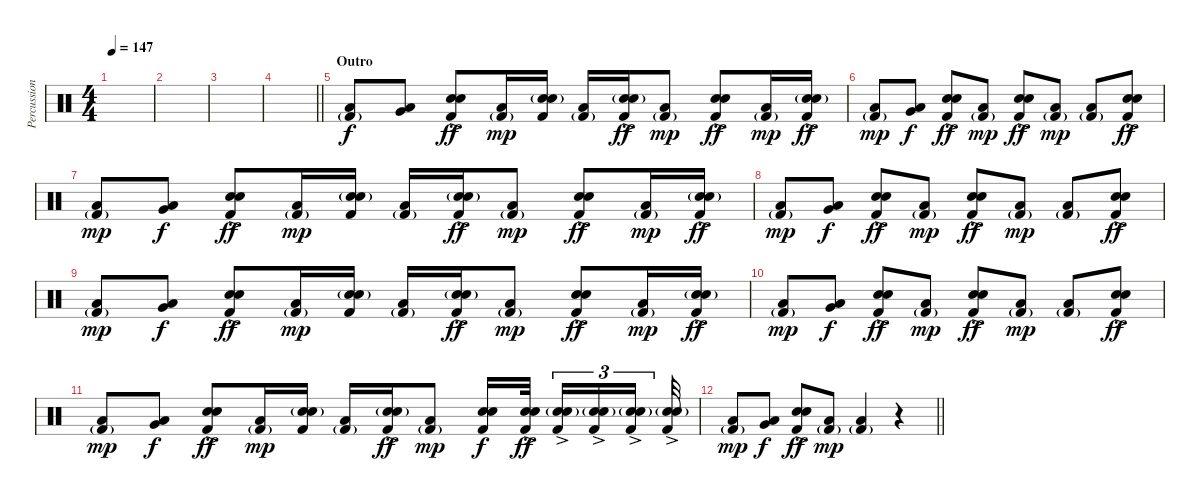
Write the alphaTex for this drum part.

\track ("Percussions" "Percussion") {instrument percussion}
\staff {score}
\articulation defaults
\ts (4 4)
\tempo 147
\clef neutral
\ks c
|
|
|
\barLineRight lightlight
|
\section ("" "Outro")
("Low Floor Tom (hit)" "Kick (hit) 2"{g}).8{volume 10} ("Very Low Tom (hit)" "Low Floor Tom (hit)").8{dy f} ("Electric Snare (hit)" "Snare (hit) 2" "Kick (hit) 2"{ac}).8{dy ff} ("Low Floor Tom (hit)" "Kick (hit) 2"{g}).16{dy mp} ("Electric Snare (hit)"{g} "Snare (hit) 2"{g} "Kick (hit) 2").16 ("Low Floor Tom (hit)" "Kick (hit) 2"{g}).16 ("Electric Snare (hit)"{g} "Snare (hit) 2" "Kick (hit) 2"{ac}).16{dy ff} ("Low Floor Tom (hit)" "Kick (hit) 2"{g}).8{dy mp} ("Electric Snare (hit)" "Snare (hit) 2" "Kick (hit) 2"{ac}).8{dy ff} ("Low Floor Tom (hit)" "Kick (hit) 2"{g}).16{dy mp} ("Electric Snare (hit)"{g} "Snare (hit) 2" "Kick (hit) 2"{ac}).16{dy ff} |
("Low Floor Tom (hit)" "Kick (hit) 2"{g}).8{dy mp} ("Very Low Tom (hit)" "Low Floor Tom (hit)").8{dy f} ("Electric Snare (hit)" "Snare (hit) 2" "Kick (hit) 2"{ac}).8{dy ff} ("Low Floor Tom (hit)" "Kick (hit) 2"{g}).8{dy mp} ("Electric Snare (hit)" "Snare (hit) 2" "Kick (hit) 2"{ac}).8{dy ff} ("Low Floor Tom (hit)" "Kick (hit) 2"{g}).8{dy mp} ("Low Floor Tom (hit)" "Kick (hit) 2"{g}).8 ("Electric Snare (hit)" "Snare (hit) 2" "Kick (hit) 2"{ac}).8{dy ff} |
("Low Floor Tom (hit)" "Kick (hit) 2"{g}).8{dy mp} ("Very Low Tom (hit)" "Low Floor Tom (hit)").8{dy f} ("Electric Snare (hit)" "Snare (hit) 2" "Kick (hit) 2"{ac}).8{dy ff} ("Low Floor Tom (hit)" "Kick (hit) 2"{g}).16{dy mp} ("Electric Snare (hit)"{g} "Snare (hit) 2"{g} "Kick (hit) 2").16 ("Low Floor Tom (hit)" "Kick (hit) 2"{g}).16 ("Electric Snare (hit)"{g} "Snare (hit) 2" "Kick (hit) 2"{ac}).16{dy ff} ("Low Floor Tom (hit)" "Kick (hit) 2"{g}).8{dy mp} ("Electric Snare (hit)" "Snare (hit) 2" "Kick (hit) 2"{ac}).8{dy ff} ("Low Floor Tom (hit)" "Kick (hit) 2"{g}).16{dy mp} ("Electric Snare (hit)"{g} "Snare (hit) 2" "Kick (hit) 2"{ac}).16{dy ff} |
("Low Floor Tom (hit)" "Kick (hit) 2"{g}).8{dy mp} ("Very Low Tom (hit)" "Low Floor Tom (hit)").8{dy f} ("Electric Snare (hit)" "Snare (hit) 2" "Kick (hit) 2"{ac}).8{dy ff} ("Low Floor Tom (hit)" "Kick (hit) 2"{g}).8{dy mp} ("Electric Snare (hit)" "Snare (hit) 2" "Kick (hit) 2"{ac}).8{dy ff} ("Low Floor Tom (hit)" "Kick (hit) 2"{g}).8{dy mp} ("Low Floor Tom (hit)" "Kick (hit) 2"{g}).8 ("Electric Snare (hit)" "Snare (hit) 2" "Kick (hit) 2"{ac}).8{dy ff} |
("Low Floor Tom (hit)" "Kick (hit) 2"{g}).8{dy mp} ("Very Low Tom (hit)" "Low Floor Tom (hit)").8{dy f} ("Electric Snare (hit)" "Snare (hit) 2" "Kick (hit) 2"{ac}).8{dy ff} ("Low Floor Tom (hit)" "Kick (hit) 2"{g}).16{dy mp} ("Electric Snare (hit)"{g} "Snare (hit) 2"{g} "Kick (hit) 2").16 ("Low Floor Tom (hit)" "Kick (hit) 2"{g}).16 ("Electric Snare (hit)"{g} "Snare (hit) 2" "Kick (hit) 2"{ac}).16{dy ff} ("Low Floor Tom (hit)" "Kick (hit) 2"{g}).8{dy mp} ("Electric Snare (hit)" "Snare (hit) 2" "Kick (hit) 2"{ac}).8{dy ff} ("Low Floor Tom (hit)" "Kick (hit) 2"{g}).16{dy mp} ("Electric Snare (hit)"{g} "Snare (hit) 2" "Kick (hit) 2"{ac}).16{dy ff} |
("Low Floor Tom (hit)" "Kick (hit) 2"{g}).8{dy mp} ("Very Low Tom (hit)" "Low Floor Tom (hit)").8{dy f} ("Electric Snare (hit)" "Snare (hit) 2" "Kick (hit) 2"{ac}).8{dy ff} ("Low Floor Tom (hit)" "Kick (hit) 2"{g}).8{dy mp} ("Electric Snare (hit)" "Snare (hit) 2" "Kick (hit) 2"{ac}).8{dy ff} ("Low Floor Tom (hit)" "Kick (hit) 2"{g}).8{dy mp} ("Low Floor Tom (hit)" "Kick (hit) 2"{g}).8 ("Electric Snare (hit)" "Snare (hit) 2" "Kick (hit) 2"{ac}).8{dy ff} |
("Low Floor Tom (hit)" "Kick (hit) 2"{g}).8{dy mp} ("Very Low Tom (hit)" "Low Floor Tom (hit)").8{dy f} ("Electric Snare (hit)" "Snare (hit) 2" "Kick (hit) 2"{ac}).8{dy ff} ("Low Floor Tom (hit)" "Kick (hit) 2"{g}).16{dy mp} ("Electric Snare (hit)"{g} "Snare (hit) 2"{g} "Kick (hit) 2").16 ("Low Floor Tom (hit)" "Kick (hit) 2"{g}).16 ("Electric Snare (hit)"{g} "Snare (hit) 2" "Kick (hit) 2"{ac}).16{dy ff} ("Low Floor Tom (hit)" "Kick (hit) 2"{g}).8{dy mp} ("Electric Snare (hit)" "Snare (hit) 2" "Kick (hit) 2").16{dy f} ("Electric Snare (hit)" "Snare (hit) 2" "Kick (hit) 2"{ac}).32{dy ff beam splitsecondary} ("Electric Snare (hit)"{g} "Snare (hit) 2" "Kick (hit) 2"{ac}).16{tu (3 2)} ("Electric Snare (hit)"{g} "Snare (hit) 2" "Kick (hit) 2"{ac}).16{tu (3 2)} ("Electric Snare (hit)"{g} "Snare (hit) 2" "Kick (hit) 2"{ac}).16{tu (3 2) beam splitsecondary} ("Electric Snare (hit)"{g} "Snare (hit) 2" "Kick (hit) 2"{ac}).32 |
\barLineRight lightlight
("Low Floor Tom (hit)" "Kick (hit) 2"{g}).8{dy mp} ("Very Low Tom (hit)" "Low Floor Tom (hit)").8{dy f} ("Electric Snare (hit)" "Snare (hit) 2" "Kick (hit) 2"{ac}).8{dy ff} ("Low Floor Tom (hit)" "Kick (hit) 2"{g}).8{dy mp} ("Low Floor Tom (hit)" "Kick (hit) 2"{g}).4 r.4
